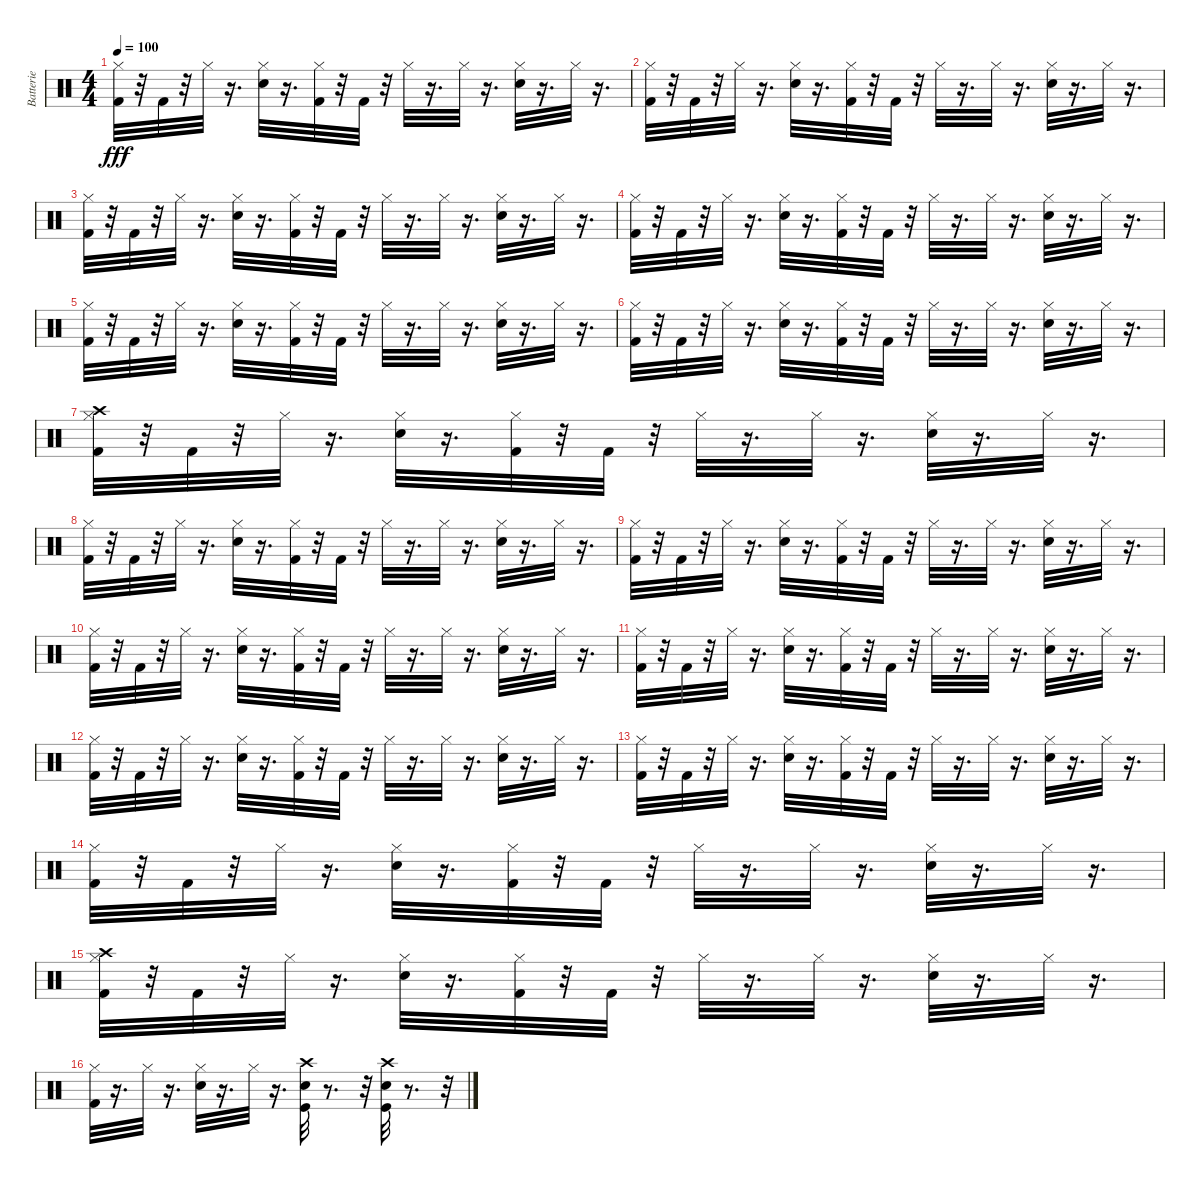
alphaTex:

\track ("Batterie" "Batterie") {instrument percussion}
\staff {score}
\articulation defaults
\ts (4 4)
\tempo 100
\clef neutral
\ks c
("Hi-Hat (closed)" "Kick (hit) 2").32{dy fff} r.32 "Kick (hit) 2".32 r.32 "Hi-Hat (closed)".32 r.16{d} ("Hi-Hat (closed)" "Snare (hit) 2").32 r.16{d} ("Hi-Hat (closed)" "Kick (hit) 2").32 r.32 "Kick (hit) 2".32 r.32 "Hi-Hat (closed)".32 r.16{d} "Hi-Hat (closed)".32 r.16{d} ("Hi-Hat (closed)" "Snare (hit) 2").32 r.16{d} "Hi-Hat (closed)".32 r.16{d} |
("Hi-Hat (closed)" "Kick (hit) 2").32 r.32 "Kick (hit) 2".32 r.32 "Hi-Hat (closed)".32 r.16{d} ("Hi-Hat (closed)" "Snare (hit) 2").32 r.16{d} ("Hi-Hat (closed)" "Kick (hit) 2").32 r.32 "Kick (hit) 2".32 r.32 "Hi-Hat (closed)".32 r.16{d} "Hi-Hat (closed)".32 r.16{d} ("Hi-Hat (closed)" "Snare (hit) 2").32 r.16{d} "Hi-Hat (closed)".32 r.16{d} |
("Hi-Hat (closed)" "Kick (hit) 2").32 r.32 "Kick (hit) 2".32 r.32 "Hi-Hat (closed)".32 r.16{d} ("Hi-Hat (closed)" "Snare (hit) 2").32 r.16{d} ("Hi-Hat (closed)" "Kick (hit) 2").32 r.32 "Kick (hit) 2".32 r.32 "Hi-Hat (closed)".32 r.16{d} "Hi-Hat (closed)".32 r.16{d} ("Hi-Hat (closed)" "Snare (hit) 2").32 r.16{d} "Hi-Hat (closed)".32 r.16{d} |
("Hi-Hat (closed)" "Kick (hit) 2").32 r.32 "Kick (hit) 2".32 r.32 "Hi-Hat (closed)".32 r.16{d} ("Hi-Hat (closed)" "Snare (hit) 2").32 r.16{d} ("Hi-Hat (closed)" "Kick (hit) 2").32 r.32 "Kick (hit) 2".32 r.32 "Hi-Hat (closed)".32 r.16{d} "Hi-Hat (closed)".32 r.16{d} ("Hi-Hat (closed)" "Snare (hit) 2").32 r.16{d} "Hi-Hat (closed)".32 r.16{d} |
("Hi-Hat (closed)" "Kick (hit) 2").32 r.32 "Kick (hit) 2".32 r.32 "Hi-Hat (closed)".32 r.16{d} ("Hi-Hat (closed)" "Snare (hit) 2").32 r.16{d} ("Hi-Hat (closed)" "Kick (hit) 2").32 r.32 "Kick (hit) 2".32 r.32 "Hi-Hat (closed)".32 r.16{d} "Hi-Hat (closed)".32 r.16{d} ("Hi-Hat (closed)" "Snare (hit) 2").32 r.16{d} "Hi-Hat (closed)".32 r.16{d} |
("Hi-Hat (closed)" "Kick (hit) 2").32 r.32 "Kick (hit) 2".32 r.32 "Hi-Hat (closed)".32 r.16{d} ("Hi-Hat (closed)" "Snare (hit) 2").32 r.16{d} ("Hi-Hat (closed)" "Kick (hit) 2").32 r.32 "Kick (hit) 2".32 r.32 "Hi-Hat (closed)".32 r.16{d} "Hi-Hat (closed)".32 r.16{d} ("Hi-Hat (closed)" "Snare (hit) 2").32 r.16{d} "Hi-Hat (closed)".32 r.16{d} |
("Crash high (hit)" "Hi-Hat (closed)" "Kick (hit) 2").32 r.32 "Kick (hit) 2".32 r.32 "Hi-Hat (closed)".32 r.16{d} ("Hi-Hat (closed)" "Snare (hit) 2").32 r.16{d} ("Hi-Hat (closed)" "Kick (hit) 2").32 r.32 "Kick (hit) 2".32 r.32 "Hi-Hat (closed)".32 r.16{d} "Hi-Hat (closed)".32 r.16{d} ("Hi-Hat (closed)" "Snare (hit) 2").32 r.16{d} "Hi-Hat (closed)".32 r.16{d} |
("Hi-Hat (closed)" "Kick (hit) 2").32 r.32 "Kick (hit) 2".32 r.32 "Hi-Hat (closed)".32 r.16{d} ("Hi-Hat (closed)" "Snare (hit) 2").32 r.16{d} ("Hi-Hat (closed)" "Kick (hit) 2").32 r.32 "Kick (hit) 2".32 r.32 "Hi-Hat (closed)".32 r.16{d} "Hi-Hat (closed)".32 r.16{d} ("Hi-Hat (closed)" "Snare (hit) 2").32 r.16{d} "Hi-Hat (closed)".32 r.16{d} |
("Hi-Hat (closed)" "Kick (hit) 2").32 r.32 "Kick (hit) 2".32 r.32 "Hi-Hat (closed)".32 r.16{d} ("Hi-Hat (closed)" "Snare (hit) 2").32 r.16{d} ("Hi-Hat (closed)" "Kick (hit) 2").32 r.32 "Kick (hit) 2".32 r.32 "Hi-Hat (closed)".32 r.16{d} "Hi-Hat (closed)".32 r.16{d} ("Hi-Hat (closed)" "Snare (hit) 2").32 r.16{d} "Hi-Hat (closed)".32 r.16{d} |
("Hi-Hat (closed)" "Kick (hit) 2").32 r.32 "Kick (hit) 2".32 r.32 "Hi-Hat (closed)".32 r.16{d} ("Hi-Hat (closed)" "Snare (hit) 2").32 r.16{d} ("Hi-Hat (closed)" "Kick (hit) 2").32 r.32 "Kick (hit) 2".32 r.32 "Hi-Hat (closed)".32 r.16{d} "Hi-Hat (closed)".32 r.16{d} ("Hi-Hat (closed)" "Snare (hit) 2").32 r.16{d} "Hi-Hat (closed)".32 r.16{d} |
("Hi-Hat (closed)" "Kick (hit) 2").32 r.32 "Kick (hit) 2".32 r.32 "Hi-Hat (closed)".32 r.16{d} ("Hi-Hat (closed)" "Snare (hit) 2").32 r.16{d} ("Hi-Hat (closed)" "Kick (hit) 2").32 r.32 "Kick (hit) 2".32 r.32 "Hi-Hat (closed)".32 r.16{d} "Hi-Hat (closed)".32 r.16{d} ("Hi-Hat (closed)" "Snare (hit) 2").32 r.16{d} "Hi-Hat (closed)".32 r.16{d} |
("Hi-Hat (closed)" "Kick (hit) 2").32 r.32 "Kick (hit) 2".32 r.32 "Hi-Hat (closed)".32 r.16{d} ("Hi-Hat (closed)" "Snare (hit) 2").32 r.16{d} ("Hi-Hat (closed)" "Kick (hit) 2").32 r.32 "Kick (hit) 2".32 r.32 "Hi-Hat (closed)".32 r.16{d} "Hi-Hat (closed)".32 r.16{d} ("Hi-Hat (closed)" "Snare (hit) 2").32 r.16{d} "Hi-Hat (closed)".32 r.16{d} |
("Hi-Hat (closed)" "Kick (hit) 2").32 r.32 "Kick (hit) 2".32 r.32 "Hi-Hat (closed)".32 r.16{d} ("Hi-Hat (closed)" "Snare (hit) 2").32 r.16{d} ("Hi-Hat (closed)" "Kick (hit) 2").32 r.32 "Kick (hit) 2".32 r.32 "Hi-Hat (closed)".32 r.16{d} "Hi-Hat (closed)".32 r.16{d} ("Hi-Hat (closed)" "Snare (hit) 2").32 r.16{d} "Hi-Hat (closed)".32 r.16{d} |
("Hi-Hat (closed)" "Kick (hit) 2").32 r.32 "Kick (hit) 2".32 r.32 "Hi-Hat (closed)".32 r.16{d} ("Hi-Hat (closed)" "Snare (hit) 2").32 r.16{d} ("Hi-Hat (closed)" "Kick (hit) 2").32 r.32 "Kick (hit) 2".32 r.32 "Hi-Hat (closed)".32 r.16{d} "Hi-Hat (closed)".32 r.16{d} ("Hi-Hat (closed)" "Snare (hit) 2").32 r.16{d} "Hi-Hat (closed)".32 r.16{d} |
("Crash high (hit)" "Hi-Hat (closed)" "Kick (hit) 2").32 r.32 "Kick (hit) 2".32 r.32 "Hi-Hat (closed)".32 r.16{d} ("Hi-Hat (closed)" "Snare (hit) 2").32 r.16{d} ("Hi-Hat (closed)" "Kick (hit) 2").32 r.32 "Kick (hit) 2".32 r.32 "Hi-Hat (closed)".32 r.16{d} "Hi-Hat (closed)".32 r.16{d} ("Hi-Hat (closed)" "Snare (hit) 2").32 r.16{d} "Hi-Hat (closed)".32 r.16{d} |
("Hi-Hat (closed)" "Kick (hit) 2").32 r.16{d} "Hi-Hat (closed)".32 r.16{d} ("Hi-Hat (closed)" "Snare (hit) 2").32 r.16{d} "Hi-Hat (closed)".32 r.16{d} ("Electric Snare (hit)" "Crash high (hit)" "Kick (hit)").32 r.8{d} r.32 ("Electric Snare (hit)" "Crash high (hit)" "Kick (hit)").32 r.8{d} r.32
